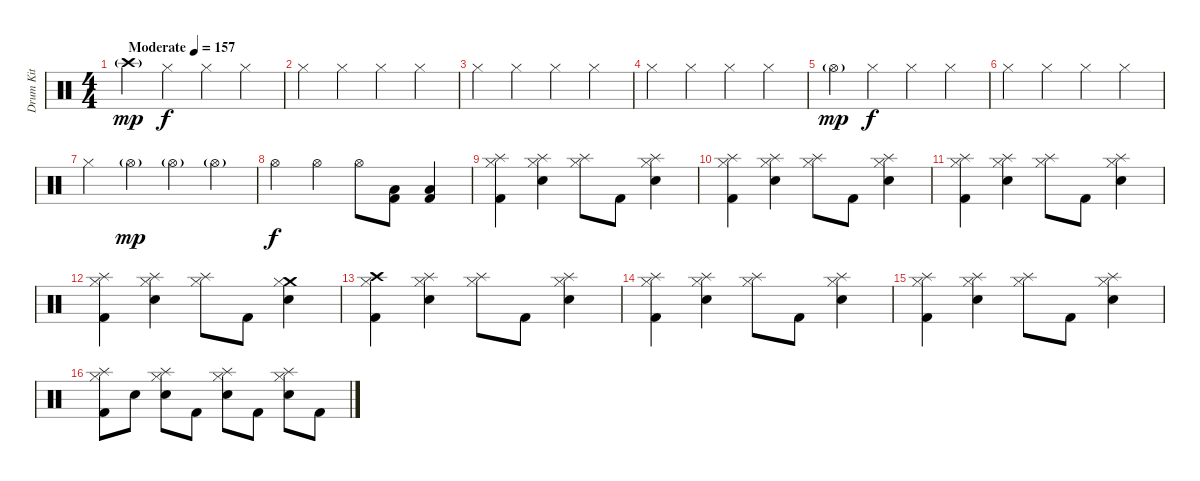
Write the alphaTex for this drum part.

\track ("Drum Kit" "Drum Kit") {instrument percussion}
\staff {score}
\articulation defaults
\ts (4 4)
\tempo (157 "Moderate")
\clef neutral
\ks c "Crash high (hit)"{g}.4{dy mp} "Hi-Hat (closed)".4{dy f} "Hi-Hat (closed)".4 "Hi-Hat (closed)".4
|
"Hi-Hat (closed)".4 "Hi-Hat (closed)".4 "Hi-Hat (closed)".4 "Hi-Hat (closed)".4 |
"Hi-Hat (closed)".4 "Hi-Hat (closed)".4 "Hi-Hat (closed)".4 "Hi-Hat (closed)".4 |
"Hi-Hat (closed)".4 "Hi-Hat (closed)".4 "Hi-Hat (closed)".4 "Hi-Hat (closed)".4 |
"Hi-Hat (open)"{g}.4{dy mp} "Hi-Hat (closed)".4{dy f} "Hi-Hat (closed)".4 "Hi-Hat (closed)".4 |
"Hi-Hat (closed)".4 "Hi-Hat (closed)".4 "Hi-Hat (closed)".4 "Hi-Hat (closed)".4 |
"Hi-Hat (closed)".4 "Hi-Hat (open)"{g}.4{dy mp} "Hi-Hat (open)"{g}.4 "Hi-Hat (open)"{g}.4 |
"Hi-Hat (open)".4{dy f} "Hi-Hat (open)".4 "Hi-Hat (open)".8 ("Kick (hit) 2" "Low Floor Tom (hit)").8 ("Kick (hit) 2" "Low Floor Tom (hit)").4 |
("Splash (hit)" "Hi-Hat (closed)" "Kick (hit) 2").4 ("Splash (hit)" "Hi-Hat (closed)" "Snare (hit) 2").4 ("Splash (hit)" "Hi-Hat (closed)").8 "Kick (hit) 2".8 ("Splash (hit)" "Hi-Hat (closed)" "Snare (hit) 2").4 |
("Splash (hit)" "Hi-Hat (closed)" "Kick (hit) 2").4 ("Splash (hit)" "Hi-Hat (closed)" "Snare (hit) 2").4 ("Splash (hit)" "Hi-Hat (closed)").8 "Kick (hit) 2".8 ("Splash (hit)" "Hi-Hat (closed)" "Snare (hit) 2").4 |
("Splash (hit)" "Hi-Hat (closed)" "Kick (hit) 2").4 ("Splash (hit)" "Hi-Hat (closed)" "Snare (hit) 2").4 ("Splash (hit)" "Hi-Hat (closed)").8 "Kick (hit) 2".8 ("Splash (hit)" "Hi-Hat (closed)" "Snare (hit) 2").4 |
("Splash (hit)" "Hi-Hat (closed)" "Kick (hit) 2").4 ("Splash (hit)" "Hi-Hat (closed)" "Snare (hit) 2").4 ("Splash (hit)" "Hi-Hat (closed)").8 "Kick (hit) 2".8 ("Crash medium (hit)" "Hi-Hat (closed)" "Snare (hit) 2").4 |
("Crash high (hit)" "Hi-Hat (closed)" "Kick (hit) 2").4 ("Splash (hit)" "Hi-Hat (closed)" "Snare (hit) 2").4 ("Splash (hit)" "Hi-Hat (closed)").8 "Kick (hit) 2".8 ("Splash (hit)" "Hi-Hat (closed)" "Snare (hit) 2").4 |
("Splash (hit)" "Hi-Hat (closed)" "Kick (hit) 2").4 ("Splash (hit)" "Hi-Hat (closed)" "Snare (hit) 2").4 ("Splash (hit)" "Hi-Hat (closed)").8 "Kick (hit) 2".8 ("Splash (hit)" "Hi-Hat (closed)" "Snare (hit) 2").4 |
("Splash (hit)" "Hi-Hat (closed)" "Kick (hit) 2").4 ("Splash (hit)" "Hi-Hat (closed)" "Snare (hit) 2").4 ("Splash (hit)" "Hi-Hat (closed)").8 "Kick (hit) 2".8 ("Splash (hit)" "Hi-Hat (closed)" "Snare (hit) 2").4 |
("Splash (hit)" "Hi-Hat (closed)" "Kick (hit) 2").8 "Snare (hit) 2".8 ("Splash (hit)" "Hi-Hat (closed)" "Snare (hit) 2").8 "Kick (hit) 2".8 ("Splash (hit)" "Hi-Hat (closed)" "Snare (hit) 2").8 "Kick (hit) 2".8 ("Splash (hit)" "Hi-Hat (closed)" "Snare (hit) 2").8 "Kick (hit) 2".8
